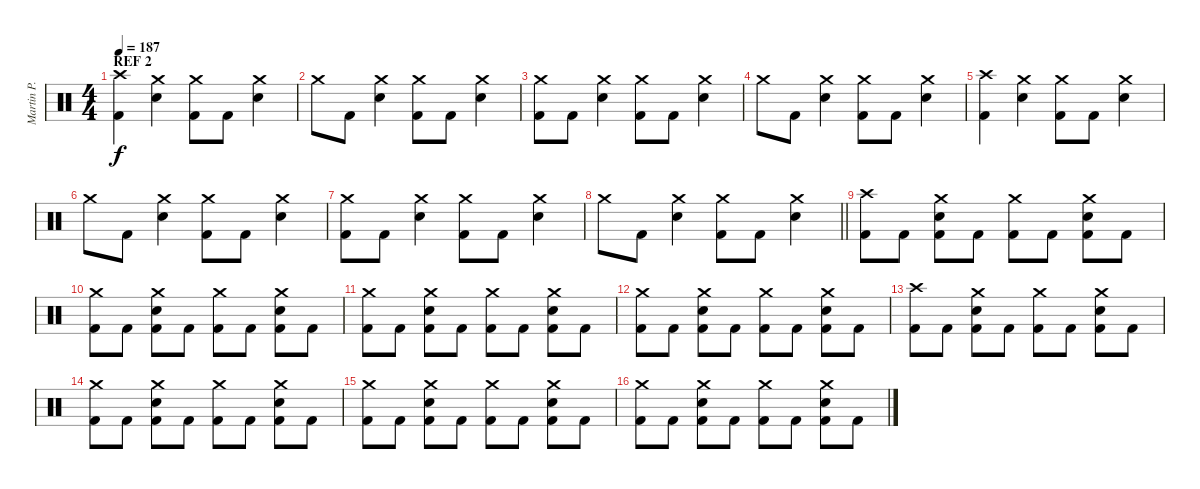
\track ("Martin P." "Martin P.") {instrument percussion}
\staff {score}
\articulation defaults
\ts (4 4)
\section ("" "REF 2")
\tempo 187
\clef neutral
\ks c
("Kick (hit) 2" "Crash high (hit)").4{dy f} ("Electric Snare (hit)" "Crash medium (hit)").4 ("Kick (hit) 2" "Crash medium (hit)").8 "Kick (hit) 2".8 ("Electric Snare (hit)" "Crash medium (hit)").4 |
"Crash medium (hit)".8 "Kick (hit) 2".8 ("Electric Snare (hit)" "Crash medium (hit)").4 ("Kick (hit) 2" "Crash medium (hit)").8 "Kick (hit) 2".8 ("Electric Snare (hit)" "Crash medium (hit)").4 |
("Kick (hit) 2" "Crash medium (hit)").8 "Kick (hit) 2".8 ("Electric Snare (hit)" "Crash medium (hit)").4 ("Kick (hit) 2" "Crash medium (hit)").8 "Kick (hit) 2".8 ("Electric Snare (hit)" "Crash medium (hit)").4 |
"Crash medium (hit)".8 "Kick (hit) 2".8 ("Electric Snare (hit)" "Crash medium (hit)").4 ("Kick (hit) 2" "Crash medium (hit)").8 "Kick (hit) 2".8 ("Electric Snare (hit)" "Crash medium (hit)").4 |
("Kick (hit) 2" "Crash high (hit)").4 ("Electric Snare (hit)" "Crash medium (hit)").4 ("Kick (hit) 2" "Crash medium (hit)").8 "Kick (hit) 2".8 ("Electric Snare (hit)" "Crash medium (hit)").4 |
"Crash medium (hit)".8 "Kick (hit) 2".8 ("Electric Snare (hit)" "Crash medium (hit)").4 ("Kick (hit) 2" "Crash medium (hit)").8 "Kick (hit) 2".8 ("Electric Snare (hit)" "Crash medium (hit)").4 |
("Kick (hit) 2" "Crash medium (hit)").8 "Kick (hit) 2".8 ("Electric Snare (hit)" "Crash medium (hit)").4 ("Kick (hit) 2" "Crash medium (hit)").8 "Kick (hit) 2".8 ("Electric Snare (hit)" "Crash medium (hit)").4 |
\barLineRight lightlight "Crash medium (hit)".8 "Kick (hit) 2".8
("Electric Snare (hit)" "Crash medium (hit)").4 ("Kick (hit) 2" "Crash medium (hit)").8 "Kick (hit) 2".8 ("Electric Snare (hit)" "Crash medium (hit)").4 |
("Kick (hit) 2" "Crash high (hit)").8 "Kick (hit) 2".8 ("Kick (hit) 2" "Electric Snare (hit)" "Crash medium (hit)").8 "Kick (hit) 2".8 ("Kick (hit) 2" "Crash medium (hit)").8 "Kick (hit) 2".8 ("Kick (hit) 2" "Electric Snare (hit)" "Crash medium (hit)").8 "Kick (hit) 2".8 |
("Kick (hit) 2" "Crash medium (hit)").8 "Kick (hit) 2".8 ("Kick (hit) 2" "Electric Snare (hit)" "Crash medium (hit)").8 "Kick (hit) 2".8 ("Kick (hit) 2" "Crash medium (hit)").8 "Kick (hit) 2".8 ("Kick (hit) 2" "Electric Snare (hit)" "Crash medium (hit)").8 "Kick (hit) 2".8 |
("Kick (hit) 2" "Crash medium (hit)").8 "Kick (hit) 2".8 ("Kick (hit) 2" "Electric Snare (hit)" "Crash medium (hit)").8 "Kick (hit) 2".8 ("Kick (hit) 2" "Crash medium (hit)").8 "Kick (hit) 2".8 ("Kick (hit) 2" "Electric Snare (hit)" "Crash medium (hit)").8 "Kick (hit) 2".8 |
("Kick (hit) 2" "Crash medium (hit)").8 "Kick (hit) 2".8 ("Kick (hit) 2" "Electric Snare (hit)" "Crash medium (hit)").8 "Kick (hit) 2".8 ("Kick (hit) 2" "Crash medium (hit)").8 "Kick (hit) 2".8 ("Kick (hit) 2" "Electric Snare (hit)" "Crash medium (hit)").8 "Kick (hit) 2".8 |
("Kick (hit) 2" "Crash high (hit)").8 "Kick (hit) 2".8 ("Kick (hit) 2" "Electric Snare (hit)" "Crash medium (hit)").8 "Kick (hit) 2".8 ("Kick (hit) 2" "Crash medium (hit)").8 "Kick (hit) 2".8 ("Kick (hit) 2" "Electric Snare (hit)" "Crash medium (hit)").8 "Kick (hit) 2".8 |
("Kick (hit) 2" "Crash medium (hit)").8 "Kick (hit) 2".8 ("Kick (hit) 2" "Electric Snare (hit)" "Crash medium (hit)").8 "Kick (hit) 2".8 ("Kick (hit) 2" "Crash medium (hit)").8 "Kick (hit) 2".8 ("Kick (hit) 2" "Electric Snare (hit)" "Crash medium (hit)").8 "Kick (hit) 2".8 |
("Kick (hit) 2" "Crash medium (hit)").8 "Kick (hit) 2".8 ("Kick (hit) 2" "Electric Snare (hit)" "Crash medium (hit)").8 "Kick (hit) 2".8 ("Kick (hit) 2" "Crash medium (hit)").8 "Kick (hit) 2".8 ("Kick (hit) 2" "Electric Snare (hit)" "Crash medium (hit)").8 "Kick (hit) 2".8 |
("Kick (hit) 2" "Crash medium (hit)").8 "Kick (hit) 2".8 ("Kick (hit) 2" "Electric Snare (hit)" "Crash medium (hit)").8 "Kick (hit) 2".8 ("Kick (hit) 2" "Crash medium (hit)").8 "Kick (hit) 2".8 ("Kick (hit) 2" "Electric Snare (hit)" "Crash medium (hit)").8 "Kick (hit) 2".8
